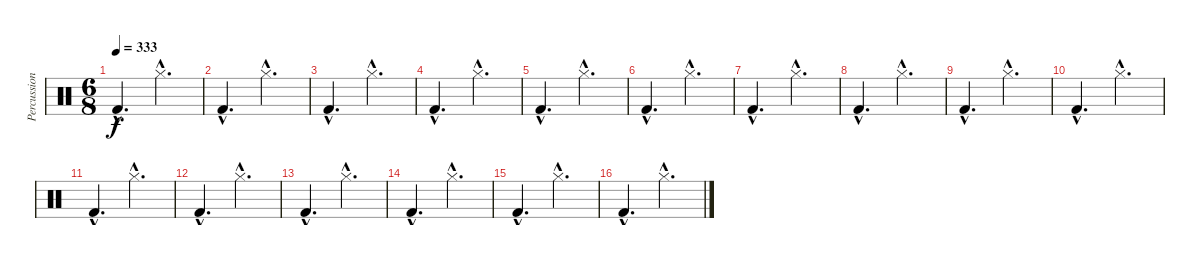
\track ("Percussion" "Percussion") {instrument percussion}
\staff {score}
\articulation defaults
\ts (6 8)
\tempo 333
\clef neutral
\ks c "Kick (hit) 2"{hac}.4{d dy f} "Hi-Hat (closed)"{hac}.4{d}
|
"Kick (hit) 2"{hac}.4{d} "Hi-Hat (closed)"{hac}.4{d} |
"Kick (hit) 2"{hac}.4{d} "Hi-Hat (closed)"{hac}.4{d} |
"Kick (hit) 2"{hac}.4{d} "Hi-Hat (closed)"{hac}.4{d} |
"Kick (hit) 2"{hac}.4{d} "Hi-Hat (closed)"{hac}.4{d} |
"Kick (hit) 2"{hac}.4{d} "Hi-Hat (closed)"{hac}.4{d} |
"Kick (hit) 2"{hac}.4{d} "Hi-Hat (closed)"{hac}.4{d} |
"Kick (hit) 2"{hac}.4{d} "Hi-Hat (closed)"{hac}.4{d} |
"Kick (hit) 2"{hac}.4{d} "Hi-Hat (closed)"{hac}.4{d} |
"Kick (hit) 2"{hac}.4{d} "Hi-Hat (closed)"{hac}.4{d} |
"Kick (hit) 2"{hac}.4{d} "Hi-Hat (closed)"{hac}.4{d} |
"Kick (hit) 2"{hac}.4{d} "Hi-Hat (closed)"{hac}.4{d} |
"Kick (hit) 2"{hac}.4{d} "Hi-Hat (closed)"{hac}.4{d} |
"Kick (hit) 2"{hac}.4{d} "Hi-Hat (closed)"{hac}.4{d} |
"Kick (hit) 2"{hac}.4{d} "Hi-Hat (closed)"{hac}.4{d} |
"Kick (hit) 2"{hac}.4{d} "Hi-Hat (closed)"{hac}.4{d}
